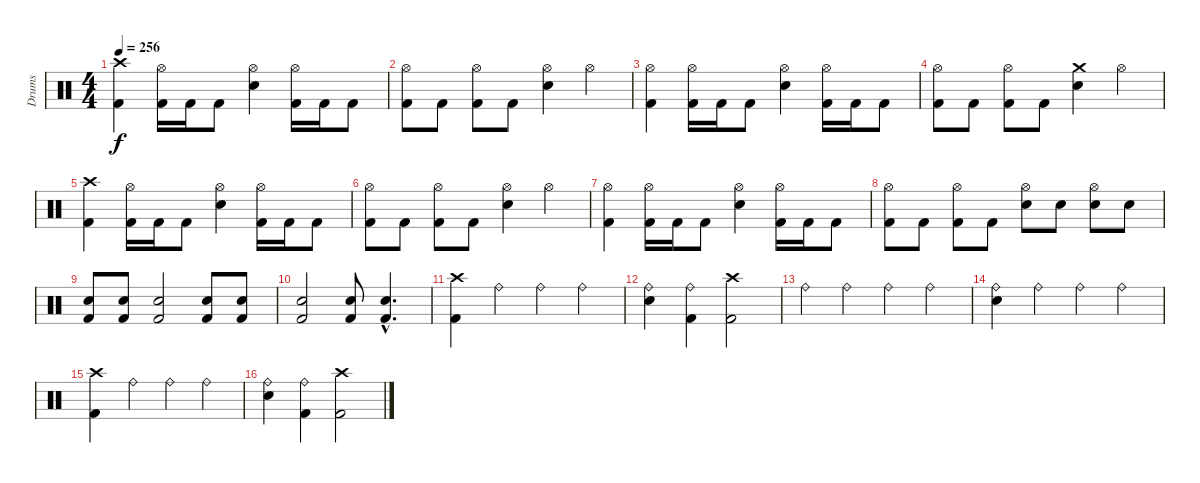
\track ("Drums" "Drums") {instrument percussion}
\staff {score}
\articulation defaults
\ts (4 4)
\tempo 256
\clef neutral
\ks c
("Crash high (hit)" "Kick (hit) 2").4{dy f} ("Hi-Hat (open)" "Kick (hit) 2").16 "Kick (hit) 2".16 "Kick (hit) 2".8 ("Hi-Hat (open)" "Electric Snare (hit)").4 ("Hi-Hat (open)" "Kick (hit) 2").16 "Kick (hit) 2".16 "Kick (hit) 2".8 |
("Hi-Hat (open)" "Kick (hit) 2").8 "Kick (hit) 2".8 ("Hi-Hat (open)" "Kick (hit) 2").8 "Kick (hit) 2".8 ("Hi-Hat (open)" "Electric Snare (hit)").4 "Hi-Hat (open)".4 |
("Hi-Hat (open)" "Kick (hit) 2").4 ("Hi-Hat (open)" "Kick (hit) 2").16 "Kick (hit) 2".16 "Kick (hit) 2".8 ("Hi-Hat (open)" "Electric Snare (hit)").4 ("Hi-Hat (open)" "Kick (hit) 2").16 "Kick (hit) 2".16 "Kick (hit) 2".8 |
("Hi-Hat (open)" "Kick (hit) 2").8 "Kick (hit) 2".8 ("Hi-Hat (open)" "Kick (hit) 2").8 "Kick (hit) 2".8 ("Crash medium (hit)" "Electric Snare (hit)").4 "Hi-Hat (open)".4 |
("Crash high (hit)" "Kick (hit) 2").4 ("Hi-Hat (open)" "Kick (hit) 2").16 "Kick (hit) 2".16 "Kick (hit) 2".8 ("Hi-Hat (open)" "Electric Snare (hit)").4 ("Hi-Hat (open)" "Kick (hit) 2").16 "Kick (hit) 2".16 "Kick (hit) 2".8 |
("Hi-Hat (open)" "Kick (hit) 2").8 "Kick (hit) 2".8 ("Hi-Hat (open)" "Kick (hit) 2").8 "Kick (hit) 2".8 ("Hi-Hat (open)" "Electric Snare (hit)").4 "Hi-Hat (open)".4 |
("Hi-Hat (open)" "Kick (hit) 2").4 ("Hi-Hat (open)" "Kick (hit) 2").16 "Kick (hit) 2".16 "Kick (hit) 2".8 ("Hi-Hat (open)" "Electric Snare (hit)").4 ("Hi-Hat (open)" "Kick (hit) 2").16 "Kick (hit) 2".16 "Kick (hit) 2".8 |
("Hi-Hat (open)" "Kick (hit) 2").8 "Kick (hit) 2".8 ("Hi-Hat (open)" "Kick (hit) 2").8 "Kick (hit) 2".8 ("Hi-Hat (open)" "Electric Snare (hit)").8 "Electric Snare (hit)".8 ("Hi-Hat (open)" "Electric Snare (hit)").8 "Electric Snare (hit)".8 |
("Electric Snare (hit)" "Kick (hit) 2").8 ("Electric Snare (hit)" "Kick (hit) 2").8 ("Electric Snare (hit)" "Kick (hit) 2").2 ("Electric Snare (hit)" "Kick (hit) 2").8 ("Electric Snare (hit)" "Kick (hit) 2").8 |
("Electric Snare (hit)" "Kick (hit) 2").2 ("Electric Snare (hit)" "Kick (hit) 2").8 ("Electric Snare (hit)"{hac} "Kick (hit) 2"{hac}).4{d} |
("Crash high (hit)" "Kick (hit) 2").4 "Ride (bell)".4 "Ride (bell)".4 "Ride (bell)".4 |
("Electric Snare (hit)" "Ride (bell)").4 ("Kick (hit) 2" "Ride (bell)").4 ("Crash high (hit)" "Kick (hit) 2").2 |
"Ride (bell)".4 "Ride (bell)".4 "Ride (bell)".4 "Ride (bell)".4 |
("Electric Snare (hit)" "Ride (bell)").4 "Ride (bell)".4 "Ride (bell)".4 "Ride (bell)".4 |
("Crash high (hit)" "Kick (hit) 2").4 "Ride (bell)".4 "Ride (bell)".4 "Ride (bell)".4 |
("Electric Snare (hit)" "Ride (bell)").4 ("Kick (hit) 2" "Ride (bell)").4 ("Crash high (hit)" "Kick (hit) 2").2
